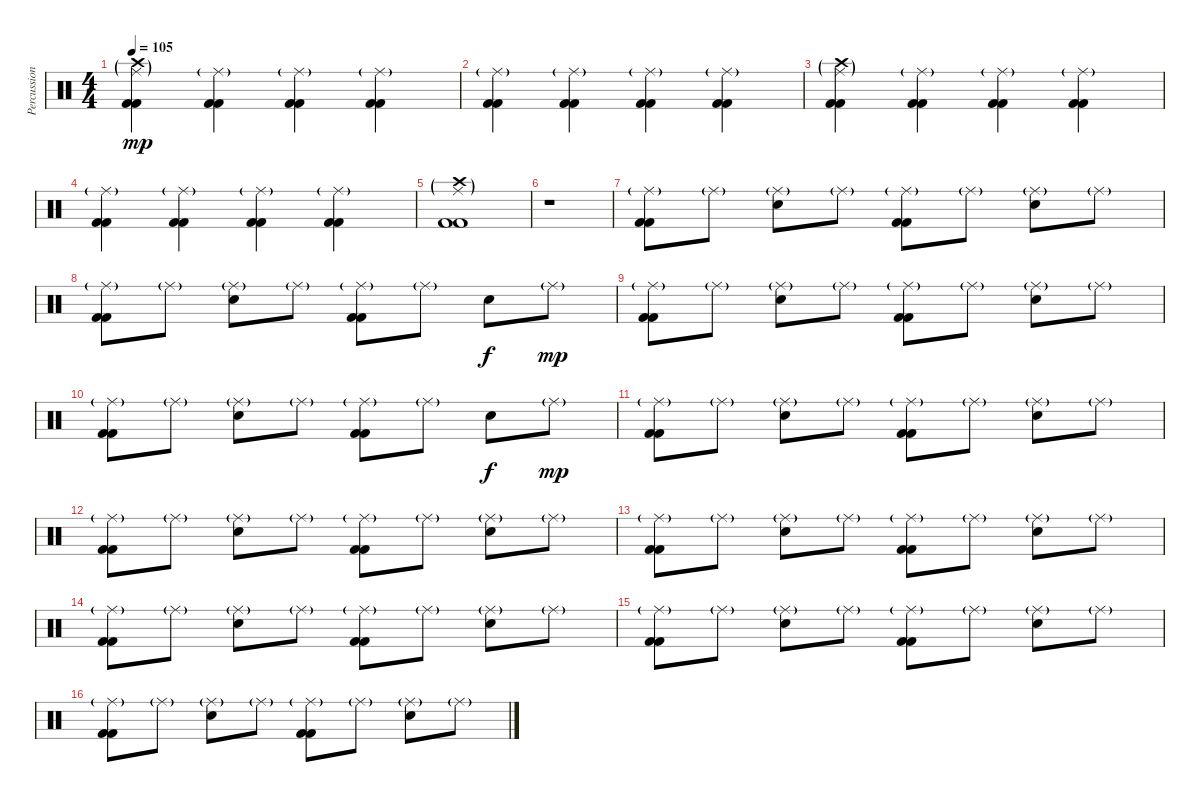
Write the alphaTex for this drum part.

\track ("Percussion" "Percussion") {instrument percussion}
\staff {score}
\articulation defaults
\ts (4 4)
\tempo 105
\clef neutral
\ks c
("Ride (middle)"{g} "Crash high (hit)"{g} "Kick (hit) 2" "Kick (hit) 2").4{dy mp} ("Ride (middle)"{g} "Kick (hit) 2" "Kick (hit) 2").4 ("Ride (middle)"{g} "Kick (hit) 2" "Kick (hit) 2").4 ("Ride (middle)"{g} "Kick (hit) 2" "Kick (hit) 2").4 |
("Ride (middle)"{g} "Kick (hit) 2" "Kick (hit) 2").4 ("Ride (middle)"{g} "Kick (hit) 2" "Kick (hit) 2").4 ("Ride (middle)"{g} "Kick (hit) 2" "Kick (hit) 2").4 ("Ride (middle)"{g} "Kick (hit) 2" "Kick (hit) 2").4 |
("Ride (middle)"{g} "Crash high (hit)"{g} "Kick (hit) 2" "Kick (hit) 2").4 ("Ride (middle)"{g} "Kick (hit) 2" "Kick (hit) 2").4 ("Ride (middle)"{g} "Kick (hit) 2" "Kick (hit) 2").4 ("Ride (middle)"{g} "Kick (hit) 2" "Kick (hit) 2").4 |
("Ride (middle)"{g} "Kick (hit) 2" "Kick (hit) 2").4 ("Ride (middle)"{g} "Kick (hit) 2" "Kick (hit) 2").4 ("Ride (middle)"{g} "Kick (hit) 2" "Kick (hit) 2").4 ("Ride (middle)"{g} "Kick (hit) 2" "Kick (hit) 2").4 |
("Ride (middle)"{g} "Crash high (hit)"{g} "Kick (hit) 2" "Kick (hit) 2").1 |
r.1 |
("Ride (middle)"{g} "Kick (hit) 2" "Kick (hit) 2").8 "Ride (middle)"{g}.8 ("Ride (middle)"{g} "Snare (hit) 2").8 "Ride (middle)"{g}.8 ("Ride (middle)"{g} "Kick (hit) 2" "Kick (hit) 2").8 "Ride (middle)"{g}.8 ("Ride (middle)"{g} "Snare (hit) 2").8 "Ride (middle)"{g}.8 |
("Ride (middle)"{g} "Kick (hit) 2" "Kick (hit) 2").8 "Ride (middle)"{g}.8 ("Ride (middle)"{g} "Snare (hit) 2").8 "Ride (middle)"{g}.8 ("Ride (middle)"{g} "Kick (hit) 2" "Kick (hit) 2").8 "Ride (middle)"{g}.8 "Snare (hit) 2".8{dy f} "Ride (middle)"{g}.8{dy mp} |
("Ride (middle)"{g} "Kick (hit) 2" "Kick (hit) 2").8 "Ride (middle)"{g}.8 ("Ride (middle)"{g} "Snare (hit) 2").8 "Ride (middle)"{g}.8 ("Ride (middle)"{g} "Kick (hit) 2" "Kick (hit) 2").8 "Ride (middle)"{g}.8 ("Ride (middle)"{g} "Snare (hit) 2").8 "Ride (middle)"{g}.8 |
("Ride (middle)"{g} "Kick (hit) 2" "Kick (hit) 2").8 "Ride (middle)"{g}.8 ("Ride (middle)"{g} "Snare (hit) 2").8 "Ride (middle)"{g}.8 ("Ride (middle)"{g} "Kick (hit) 2" "Kick (hit) 2").8 "Ride (middle)"{g}.8 "Snare (hit) 2".8{dy f} "Ride (middle)"{g}.8{dy mp} |
("Ride (middle)"{g} "Kick (hit) 2" "Kick (hit) 2").8 "Ride (middle)"{g}.8 ("Ride (middle)"{g} "Snare (hit) 2").8 "Ride (middle)"{g}.8 ("Ride (middle)"{g} "Kick (hit) 2" "Kick (hit) 2").8 "Ride (middle)"{g}.8 ("Ride (middle)"{g} "Snare (hit) 2").8 "Ride (middle)"{g}.8 |
("Ride (middle)"{g} "Kick (hit) 2" "Kick (hit) 2").8 "Ride (middle)"{g}.8 ("Ride (middle)"{g} "Snare (hit) 2").8 "Ride (middle)"{g}.8 ("Ride (middle)"{g} "Kick (hit) 2" "Kick (hit) 2").8 "Ride (middle)"{g}.8 ("Ride (middle)"{g} "Snare (hit) 2").8 "Ride (middle)"{g}.8 |
("Ride (middle)"{g} "Kick (hit) 2" "Kick (hit) 2").8 "Ride (middle)"{g}.8 ("Ride (middle)"{g} "Snare (hit) 2").8 "Ride (middle)"{g}.8 ("Ride (middle)"{g} "Kick (hit) 2" "Kick (hit) 2").8 "Ride (middle)"{g}.8 ("Ride (middle)"{g} "Snare (hit) 2").8 "Ride (middle)"{g}.8 |
("Ride (middle)"{g} "Kick (hit) 2" "Kick (hit) 2").8 "Ride (middle)"{g}.8 ("Ride (middle)"{g} "Snare (hit) 2").8 "Ride (middle)"{g}.8 ("Ride (middle)"{g} "Kick (hit) 2" "Kick (hit) 2").8 "Ride (middle)"{g}.8 ("Ride (middle)"{g} "Snare (hit) 2").8 "Ride (middle)"{g}.8 |
("Ride (middle)"{g} "Kick (hit) 2" "Kick (hit) 2").8 "Ride (middle)"{g}.8 ("Ride (middle)"{g} "Snare (hit) 2").8 "Ride (middle)"{g}.8 ("Ride (middle)"{g} "Kick (hit) 2" "Kick (hit) 2").8 "Ride (middle)"{g}.8 ("Ride (middle)"{g} "Snare (hit) 2").8 "Ride (middle)"{g}.8 |
("Ride (middle)"{g} "Kick (hit) 2" "Kick (hit) 2").8 "Ride (middle)"{g}.8 ("Ride (middle)"{g} "Snare (hit) 2").8 "Ride (middle)"{g}.8 ("Ride (middle)"{g} "Kick (hit) 2" "Kick (hit) 2").8 "Ride (middle)"{g}.8 ("Ride (middle)"{g} "Snare (hit) 2").8 "Ride (middle)"{g}.8
